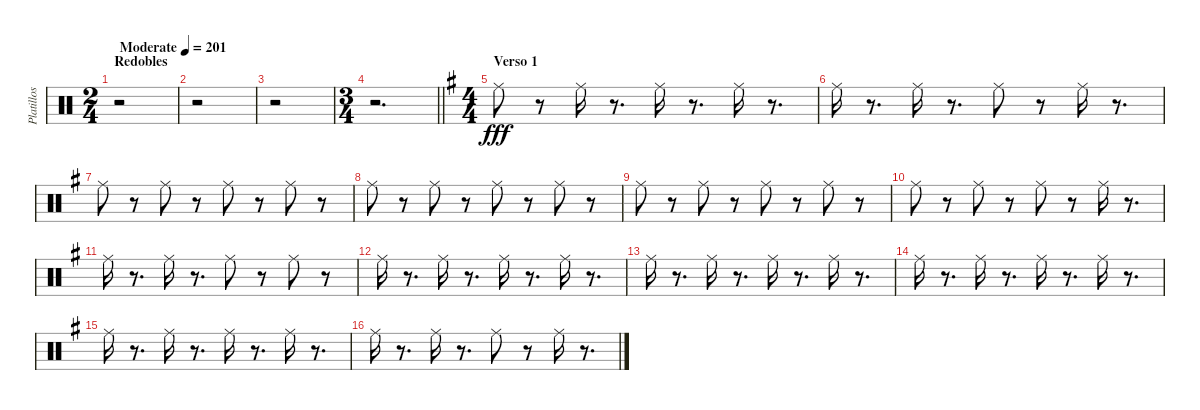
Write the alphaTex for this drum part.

\track ("Platillos y pandero" "Platillos ") {instrument percussion}
\staff {score}
\articulation defaults
\ts (2 4)
\section ("" "Redobles")
\tempo (201 "Moderate")
\clef neutral
\ks c
r.2{dy fff} |
r.2 |
r.2 |
\ts (3 4)
\barLineRight lightlight
r.2{d} |
\ts (4 4)
\section ("" "Verso 1")
\ks g "Ride (middle)".8
r.8 "Ride (middle)".16 r.8{d} "Ride (middle)".16 r.8{d} "Ride (middle)".16 r.8{d} |
"Ride (middle)".16 r.8{d} "Ride (middle)".16 r.8{d} "Ride (middle)".8 r.8 "Ride (middle)".16 r.8{d} |
"Ride (middle)".8 r.8 "Ride (middle)".8 r.8 "Ride (middle)".8 r.8 "Ride (middle)".8 r.8 |
"Ride (middle)".8 r.8 "Ride (middle)".8 r.8 "Ride (middle)".8 r.8 "Ride (middle)".8 r.8 |
"Ride (middle)".8 r.8 "Ride (middle)".8 r.8 "Ride (middle)".8 r.8 "Ride (middle)".8 r.8 |
"Ride (middle)".8 r.8 "Ride (middle)".8 r.8 "Ride (middle)".8 r.8 "Ride (middle)".16 r.8{d} |
"Ride (middle)".16 r.8{d} "Ride (middle)".16 r.8{d} "Ride (middle)".8 r.8 "Ride (middle)".8 r.8 |
"Ride (middle)".16 r.8{d} "Ride (middle)".16 r.8{d} "Ride (middle)".16 r.8{d} "Ride (middle)".16 r.8{d} |
"Ride (middle)".16 r.8{d} "Ride (middle)".16 r.8{d} "Ride (middle)".16 r.8{d} "Ride (middle)".16 r.8{d} |
"Ride (middle)".16 r.8{d} "Ride (middle)".16 r.8{d} "Ride (middle)".16 r.8{d} "Ride (middle)".16 r.8{d} |
"Ride (middle)".16 r.8{d} "Ride (middle)".16 r.8{d} "Ride (middle)".16 r.8{d} "Ride (middle)".16 r.8{d} |
"Ride (middle)".16 r.8{d} "Ride (middle)".16 r.8{d} "Ride (middle)".8 r.8 "Ride (middle)".16 r.8{d}
